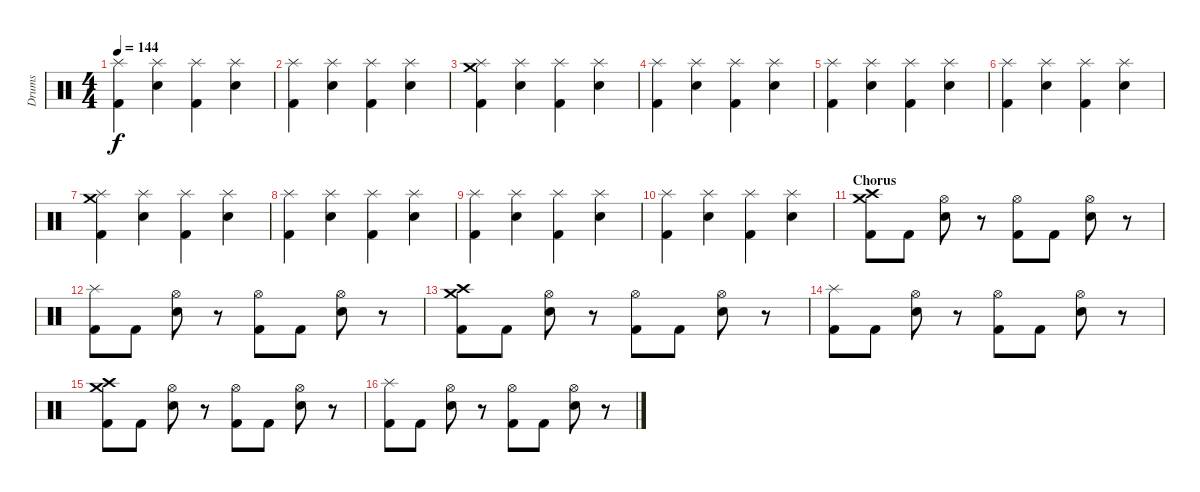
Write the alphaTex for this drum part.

\track ("Drums" "Drums") {instrument percussion}
\staff {score}
\articulation defaults
\ts (4 4)
\tempo 144
\clef neutral
\ks c
("Splash (hit)" "Kick (hit) 2").4{dy f} ("Splash (hit)" "Snare (hit) 2").4 ("Splash (hit)" "Kick (hit) 2").4 ("Splash (hit)" "Snare (hit) 2").4 |
("Splash (hit)" "Kick (hit) 2").4 ("Splash (hit)" "Snare (hit) 2").4 ("Splash (hit)" "Kick (hit) 2").4 ("Splash (hit)" "Snare (hit) 2").4 |
("Splash (hit)" "Crash medium (hit)" "Kick (hit) 2").4 ("Splash (hit)" "Snare (hit) 2").4 ("Splash (hit)" "Kick (hit) 2").4 ("Splash (hit)" "Snare (hit) 2").4 |
("Splash (hit)" "Kick (hit) 2").4 ("Splash (hit)" "Snare (hit) 2").4 ("Splash (hit)" "Kick (hit) 2").4 ("Splash (hit)" "Snare (hit) 2").4 |
("Splash (hit)" "Kick (hit) 2").4 ("Splash (hit)" "Snare (hit) 2").4 ("Splash (hit)" "Kick (hit) 2").4 ("Splash (hit)" "Snare (hit) 2").4 |
("Splash (hit)" "Kick (hit) 2").4 ("Splash (hit)" "Snare (hit) 2").4 ("Splash (hit)" "Kick (hit) 2").4 ("Splash (hit)" "Snare (hit) 2").4 |
("Splash (hit)" "Crash medium (hit)" "Kick (hit) 2").4 ("Splash (hit)" "Snare (hit) 2").4 ("Splash (hit)" "Kick (hit) 2").4 ("Splash (hit)" "Snare (hit) 2").4 |
("Splash (hit)" "Kick (hit) 2").4 ("Splash (hit)" "Snare (hit) 2").4 ("Splash (hit)" "Kick (hit) 2").4 ("Splash (hit)" "Snare (hit) 2").4 |
("Splash (hit)" "Kick (hit) 2").4 ("Splash (hit)" "Snare (hit) 2").4 ("Splash (hit)" "Kick (hit) 2").4 ("Splash (hit)" "Snare (hit) 2").4 |
("Splash (hit)" "Kick (hit) 2").4 ("Splash (hit)" "Snare (hit) 2").4 ("Splash (hit)" "Kick (hit) 2").4 ("Splash (hit)" "Snare (hit) 2").4 |
\section ("" "Chorus")
("Crash medium (hit)" "Crash high (hit)" "Kick (hit) 2").8 "Kick (hit) 2".8 ("Hi-Hat (open)" "Snare (hit) 2").8 r.8 ("Hi-Hat (open)" "Kick (hit) 2").8 "Kick (hit) 2".8 ("Hi-Hat (open)" "Snare (hit) 2").8 r.8 |
("Splash (hit)" "Kick (hit) 2").8 "Kick (hit) 2".8 ("Hi-Hat (open)" "Snare (hit) 2").8 r.8 ("Hi-Hat (open)" "Kick (hit) 2").8 "Kick (hit) 2".8 ("Hi-Hat (open)" "Snare (hit) 2").8 r.8 |
("Crash medium (hit)" "Crash high (hit)" "Kick (hit) 2").8 "Kick (hit) 2".8 ("Hi-Hat (open)" "Snare (hit) 2").8 r.8 ("Hi-Hat (open)" "Kick (hit) 2").8 "Kick (hit) 2".8 ("Hi-Hat (open)" "Snare (hit) 2").8 r.8 |
("Splash (hit)" "Kick (hit) 2").8 "Kick (hit) 2".8 ("Hi-Hat (open)" "Snare (hit) 2").8 r.8 ("Hi-Hat (open)" "Kick (hit) 2").8 "Kick (hit) 2".8 ("Hi-Hat (open)" "Snare (hit) 2").8 r.8 |
("Crash medium (hit)" "Crash high (hit)" "Kick (hit) 2").8 "Kick (hit) 2".8 ("Hi-Hat (open)" "Snare (hit) 2").8 r.8 ("Hi-Hat (open)" "Kick (hit) 2").8 "Kick (hit) 2".8 ("Hi-Hat (open)" "Snare (hit) 2").8 r.8 |
("Splash (hit)" "Kick (hit) 2").8 "Kick (hit) 2".8 ("Hi-Hat (open)" "Snare (hit) 2").8 r.8 ("Hi-Hat (open)" "Kick (hit) 2").8 "Kick (hit) 2".8 ("Hi-Hat (open)" "Snare (hit) 2").8 r.8
